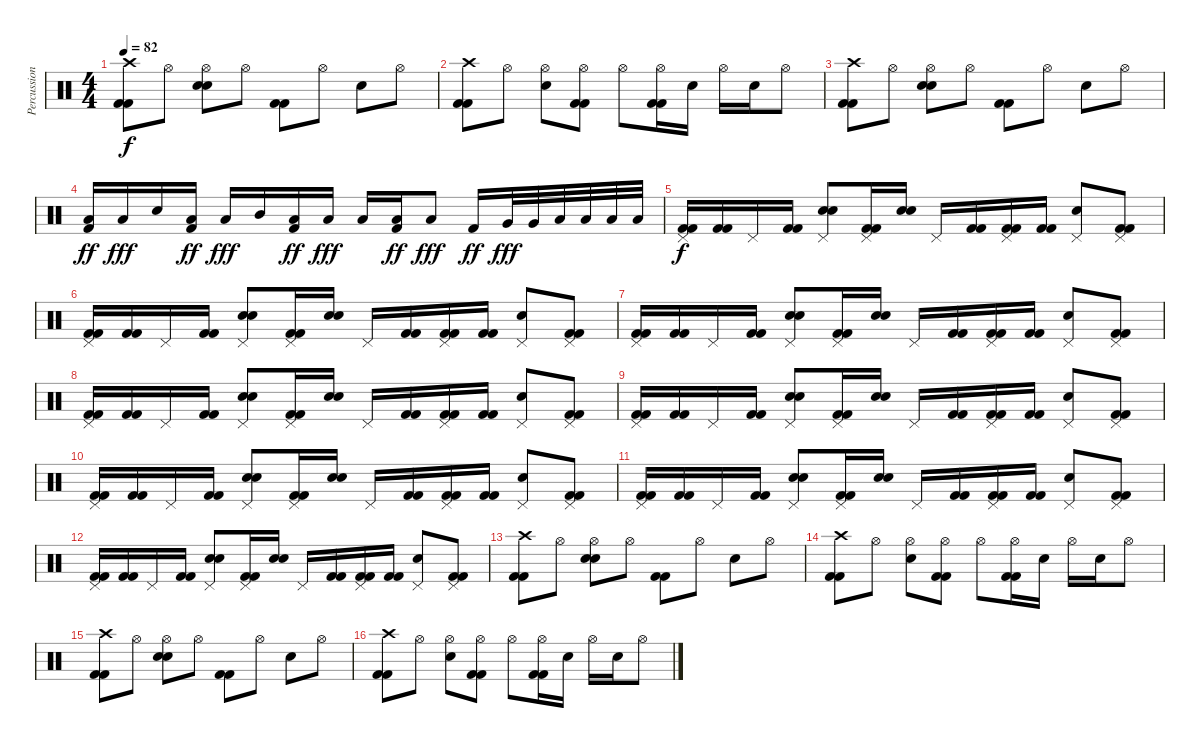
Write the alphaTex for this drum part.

\track ("Percussion" "Percussion") {instrument percussion}
\staff {score}
\articulation defaults
\ts (4 4)
\tempo 82
\clef neutral
\ks c
("Crash high (hit)" "Kick (hit) 2" "Kick (hit) 2").8{dy f} "Hi-Hat (open)".8 ("Hi-Hat (open)" "Electric Snare (hit)" "Electric Snare (hit)").8 "Hi-Hat (open)".8 ("Kick (hit) 2" "Kick (hit) 2").8 "Hi-Hat (open)".8 "Electric Snare (hit)".8 "Hi-Hat (open)".8 |
("Crash high (hit)" "Kick (hit) 2" "Kick (hit) 2").8 "Hi-Hat (open)".8 ("Hi-Hat (open)" "Electric Snare (hit)").8 ("Hi-Hat (open)" "Kick (hit) 2" "Kick (hit) 2").8 "Hi-Hat (open)".8 ("Hi-Hat (open)" "Kick (hit) 2" "Kick (hit) 2").16 "Electric Snare (hit)".16 "Hi-Hat (open)".16 "Electric Snare (hit)".16 "Hi-Hat (open)".8 |
("Crash high (hit)" "Kick (hit) 2" "Kick (hit) 2").8 "Hi-Hat (open)".8 ("Hi-Hat (open)" "Electric Snare (hit)" "Electric Snare (hit)").8 "Hi-Hat (open)".8 ("Kick (hit) 2" "Kick (hit) 2").8 "Hi-Hat (open)".8 "Electric Snare (hit)".8 "Hi-Hat (open)".8 |
("Low Floor Tom (hit)" "Kick (hit) 2").16{dy ff} "Low Floor Tom (hit)".16{dy fff} "Electric Snare (hit)".16 ("Low Floor Tom (hit)" "Kick (hit) 2").16{dy ff} "Low Floor Tom (hit)".16{dy fff} "Mid Tom (hit)".16 ("Low Floor Tom (hit)" "Kick (hit) 2").16{dy ff} "Low Floor Tom (hit)".16{dy fff} "Low Tom (hit)".16 ("Low Floor Tom (hit)" "Kick (hit) 2").16{dy ff} "Low Floor Tom (hit)".8{dy fff} "Kick (hit) 2".16{dy ff} "Very Low Tom (hit)".32{dy fff} "Very Low Tom (hit)".32 "Low Floor Tom (hit)".32 "Low Floor Tom (hit)".32 "Low Floor Tom (hit)".32 "Low Floor Tom (hit)".32 |
("Pedal Hi-Hat (hit)" "Kick (hit) 2" "Kick (hit) 2").16{dy f} ("Kick (hit) 2" "Kick (hit) 2").16 "Pedal Hi-Hat (hit)".16 ("Kick (hit) 2" "Kick (hit) 2").16 ("Pedal Hi-Hat (hit)" "Electric Snare (hit)" "Electric Snare (hit)").8 ("Pedal Hi-Hat (hit)" "Kick (hit) 2" "Kick (hit) 2").16 ("Electric Snare (hit)" "Electric Snare (hit)").16 "Pedal Hi-Hat (hit)".16 ("Kick (hit) 2" "Kick (hit) 2").16 ("Pedal Hi-Hat (hit)" "Kick (hit) 2" "Kick (hit) 2").16 ("Kick (hit) 2" "Kick (hit) 2").16 ("Pedal Hi-Hat (hit)" "Electric Snare (hit)").8 ("Pedal Hi-Hat (hit)" "Kick (hit) 2" "Kick (hit) 2").8 |
("Pedal Hi-Hat (hit)" "Kick (hit) 2" "Kick (hit) 2").16 ("Kick (hit) 2" "Kick (hit) 2").16 "Pedal Hi-Hat (hit)".16 ("Kick (hit) 2" "Kick (hit) 2").16 ("Pedal Hi-Hat (hit)" "Electric Snare (hit)" "Electric Snare (hit)").8 ("Pedal Hi-Hat (hit)" "Kick (hit) 2" "Kick (hit) 2").16 ("Electric Snare (hit)" "Electric Snare (hit)").16 "Pedal Hi-Hat (hit)".16 ("Kick (hit) 2" "Kick (hit) 2").16 ("Pedal Hi-Hat (hit)" "Kick (hit) 2" "Kick (hit) 2").16 ("Kick (hit) 2" "Kick (hit) 2").16 ("Pedal Hi-Hat (hit)" "Electric Snare (hit)").8 ("Pedal Hi-Hat (hit)" "Kick (hit) 2" "Kick (hit) 2").8 |
("Pedal Hi-Hat (hit)" "Kick (hit) 2" "Kick (hit) 2").16 ("Kick (hit) 2" "Kick (hit) 2").16 "Pedal Hi-Hat (hit)".16 ("Kick (hit) 2" "Kick (hit) 2").16 ("Pedal Hi-Hat (hit)" "Electric Snare (hit)" "Electric Snare (hit)").8 ("Pedal Hi-Hat (hit)" "Kick (hit) 2" "Kick (hit) 2").16 ("Electric Snare (hit)" "Electric Snare (hit)").16 "Pedal Hi-Hat (hit)".16 ("Kick (hit) 2" "Kick (hit) 2").16 ("Pedal Hi-Hat (hit)" "Kick (hit) 2" "Kick (hit) 2").16 ("Kick (hit) 2" "Kick (hit) 2").16 ("Pedal Hi-Hat (hit)" "Electric Snare (hit)").8 ("Pedal Hi-Hat (hit)" "Kick (hit) 2" "Kick (hit) 2").8 |
("Pedal Hi-Hat (hit)" "Kick (hit) 2" "Kick (hit) 2").16 ("Kick (hit) 2" "Kick (hit) 2").16 "Pedal Hi-Hat (hit)".16 ("Kick (hit) 2" "Kick (hit) 2").16 ("Pedal Hi-Hat (hit)" "Electric Snare (hit)" "Electric Snare (hit)").8 ("Pedal Hi-Hat (hit)" "Kick (hit) 2" "Kick (hit) 2").16 ("Electric Snare (hit)" "Electric Snare (hit)").16 "Pedal Hi-Hat (hit)".16 ("Kick (hit) 2" "Kick (hit) 2").16 ("Pedal Hi-Hat (hit)" "Kick (hit) 2" "Kick (hit) 2").16 ("Kick (hit) 2" "Kick (hit) 2").16 ("Pedal Hi-Hat (hit)" "Electric Snare (hit)").8 ("Pedal Hi-Hat (hit)" "Kick (hit) 2" "Kick (hit) 2").8 |
("Pedal Hi-Hat (hit)" "Kick (hit) 2" "Kick (hit) 2").16 ("Kick (hit) 2" "Kick (hit) 2").16 "Pedal Hi-Hat (hit)".16 ("Kick (hit) 2" "Kick (hit) 2").16 ("Pedal Hi-Hat (hit)" "Electric Snare (hit)" "Electric Snare (hit)").8 ("Pedal Hi-Hat (hit)" "Kick (hit) 2" "Kick (hit) 2").16 ("Electric Snare (hit)" "Electric Snare (hit)").16 "Pedal Hi-Hat (hit)".16 ("Kick (hit) 2" "Kick (hit) 2").16 ("Pedal Hi-Hat (hit)" "Kick (hit) 2" "Kick (hit) 2").16 ("Kick (hit) 2" "Kick (hit) 2").16 ("Pedal Hi-Hat (hit)" "Electric Snare (hit)").8 ("Pedal Hi-Hat (hit)" "Kick (hit) 2" "Kick (hit) 2").8 |
("Pedal Hi-Hat (hit)" "Kick (hit) 2" "Kick (hit) 2").16 ("Kick (hit) 2" "Kick (hit) 2").16 "Pedal Hi-Hat (hit)".16 ("Kick (hit) 2" "Kick (hit) 2").16 ("Pedal Hi-Hat (hit)" "Electric Snare (hit)" "Electric Snare (hit)").8 ("Pedal Hi-Hat (hit)" "Kick (hit) 2" "Kick (hit) 2").16 ("Electric Snare (hit)" "Electric Snare (hit)").16 "Pedal Hi-Hat (hit)".16 ("Kick (hit) 2" "Kick (hit) 2").16 ("Pedal Hi-Hat (hit)" "Kick (hit) 2" "Kick (hit) 2").16 ("Kick (hit) 2" "Kick (hit) 2").16 ("Pedal Hi-Hat (hit)" "Electric Snare (hit)").8 ("Pedal Hi-Hat (hit)" "Kick (hit) 2" "Kick (hit) 2").8 |
("Pedal Hi-Hat (hit)" "Kick (hit) 2" "Kick (hit) 2").16 ("Kick (hit) 2" "Kick (hit) 2").16 "Pedal Hi-Hat (hit)".16 ("Kick (hit) 2" "Kick (hit) 2").16 ("Pedal Hi-Hat (hit)" "Electric Snare (hit)" "Electric Snare (hit)").8 ("Pedal Hi-Hat (hit)" "Kick (hit) 2" "Kick (hit) 2").16 ("Electric Snare (hit)" "Electric Snare (hit)").16 "Pedal Hi-Hat (hit)".16 ("Kick (hit) 2" "Kick (hit) 2").16 ("Pedal Hi-Hat (hit)" "Kick (hit) 2" "Kick (hit) 2").16 ("Kick (hit) 2" "Kick (hit) 2").16 ("Pedal Hi-Hat (hit)" "Electric Snare (hit)").8 ("Pedal Hi-Hat (hit)" "Kick (hit) 2" "Kick (hit) 2").8 |
("Pedal Hi-Hat (hit)" "Kick (hit) 2" "Kick (hit) 2").16 ("Kick (hit) 2" "Kick (hit) 2").16 "Pedal Hi-Hat (hit)".16 ("Kick (hit) 2" "Kick (hit) 2").16 ("Pedal Hi-Hat (hit)" "Electric Snare (hit)" "Electric Snare (hit)").8 ("Pedal Hi-Hat (hit)" "Kick (hit) 2" "Kick (hit) 2").16 ("Electric Snare (hit)" "Electric Snare (hit)").16 "Pedal Hi-Hat (hit)".16 ("Kick (hit) 2" "Kick (hit) 2").16 ("Pedal Hi-Hat (hit)" "Kick (hit) 2" "Kick (hit) 2").16 ("Kick (hit) 2" "Kick (hit) 2").16 ("Pedal Hi-Hat (hit)" "Electric Snare (hit)").8 ("Pedal Hi-Hat (hit)" "Kick (hit) 2" "Kick (hit) 2").8 |
("Crash high (hit)" "Kick (hit) 2" "Kick (hit) 2").8 "Hi-Hat (open)".8 ("Hi-Hat (open)" "Electric Snare (hit)" "Electric Snare (hit)").8 "Hi-Hat (open)".8 ("Kick (hit) 2" "Kick (hit) 2").8 "Hi-Hat (open)".8 "Electric Snare (hit)".8 "Hi-Hat (open)".8 |
("Crash high (hit)" "Kick (hit) 2" "Kick (hit) 2").8 "Hi-Hat (open)".8 ("Hi-Hat (open)" "Electric Snare (hit)").8 ("Hi-Hat (open)" "Kick (hit) 2" "Kick (hit) 2").8 "Hi-Hat (open)".8 ("Hi-Hat (open)" "Kick (hit) 2" "Kick (hit) 2").16 "Electric Snare (hit)".16 "Hi-Hat (open)".16 "Electric Snare (hit)".16 "Hi-Hat (open)".8 |
("Crash high (hit)" "Kick (hit) 2" "Kick (hit) 2").8 "Hi-Hat (open)".8 ("Hi-Hat (open)" "Electric Snare (hit)" "Electric Snare (hit)").8 "Hi-Hat (open)".8 ("Kick (hit) 2" "Kick (hit) 2").8 "Hi-Hat (open)".8 "Electric Snare (hit)".8 "Hi-Hat (open)".8 |
("Crash high (hit)" "Kick (hit) 2" "Kick (hit) 2").8 "Hi-Hat (open)".8 ("Hi-Hat (open)" "Electric Snare (hit)").8 ("Hi-Hat (open)" "Kick (hit) 2" "Kick (hit) 2").8 "Hi-Hat (open)".8 ("Hi-Hat (open)" "Kick (hit) 2" "Kick (hit) 2").16 "Electric Snare (hit)".16 "Hi-Hat (open)".16 "Electric Snare (hit)".16 "Hi-Hat (open)".8
